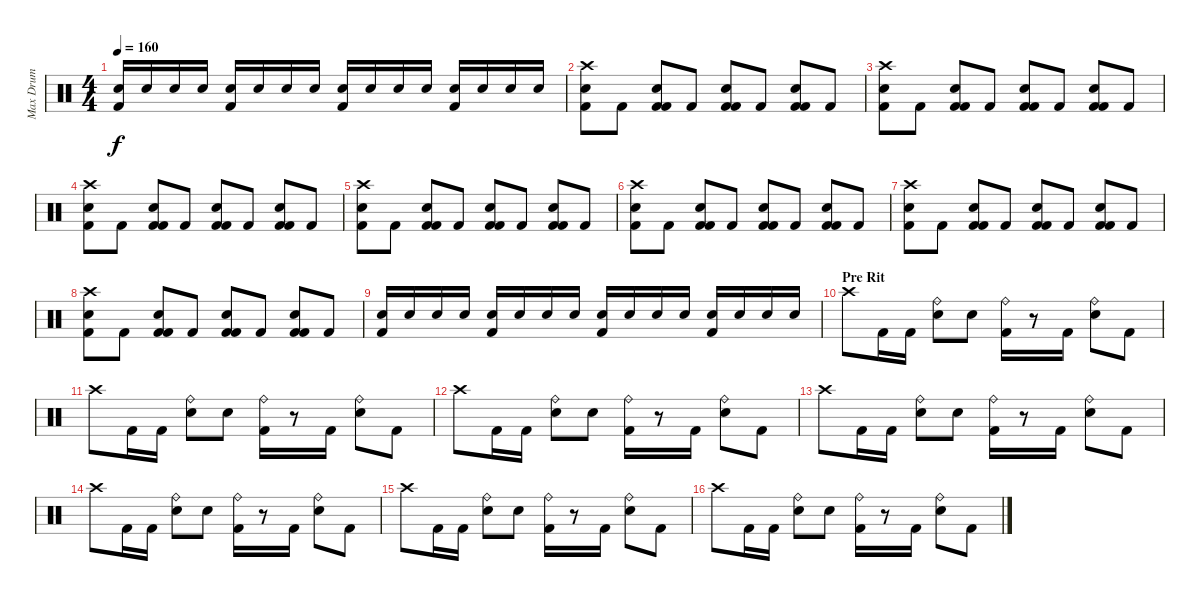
\track ("Max Drum" "Max Drum") {instrument percussion}
\staff {score}
\articulation defaults
\ts (4 4)
\tempo 160
\clef neutral
\ks c
("Snare (hit) 2" "Kick (hit) 2").16{dy f} "Snare (hit) 2".16 "Snare (hit) 2".16 "Snare (hit) 2".16 ("Snare (hit) 2" "Kick (hit) 2").16 "Snare (hit) 2".16 "Snare (hit) 2".16 "Snare (hit) 2".16 ("Snare (hit) 2" "Kick (hit) 2").16 "Snare (hit) 2".16 "Snare (hit) 2".16 "Snare (hit) 2".16 ("Snare (hit) 2" "Kick (hit) 2").16 "Snare (hit) 2".16 "Snare (hit) 2".16 "Snare (hit) 2".16 |
\section ("" "")
("Crash high (hit)" "Snare (hit) 2" "Kick (hit) 2").8 "Kick (hit) 2".8 ("Kick (hit) 2" "Snare (hit) 2" "Kick (hit) 2").8 "Kick (hit) 2".8 ("Kick (hit) 2" "Snare (hit) 2" "Kick (hit) 2").8 "Kick (hit) 2".8 ("Kick (hit) 2" "Snare (hit) 2" "Kick (hit) 2").8 "Kick (hit) 2".8 |
("Crash high (hit)" "Snare (hit) 2" "Kick (hit) 2").8 "Kick (hit) 2".8 ("Kick (hit) 2" "Snare (hit) 2" "Kick (hit) 2").8 "Kick (hit) 2".8 ("Kick (hit) 2" "Snare (hit) 2" "Kick (hit) 2").8 "Kick (hit) 2".8 ("Kick (hit) 2" "Snare (hit) 2" "Kick (hit) 2").8 "Kick (hit) 2".8 |
("Crash high (hit)" "Snare (hit) 2" "Kick (hit) 2").8 "Kick (hit) 2".8 ("Kick (hit) 2" "Snare (hit) 2" "Kick (hit) 2").8 "Kick (hit) 2".8 ("Kick (hit) 2" "Snare (hit) 2" "Kick (hit) 2").8 "Kick (hit) 2".8 ("Kick (hit) 2" "Snare (hit) 2" "Kick (hit) 2").8 "Kick (hit) 2".8 |
("Crash high (hit)" "Snare (hit) 2" "Kick (hit) 2").8 "Kick (hit) 2".8 ("Kick (hit) 2" "Snare (hit) 2" "Kick (hit) 2").8 "Kick (hit) 2".8 ("Kick (hit) 2" "Snare (hit) 2" "Kick (hit) 2").8 "Kick (hit) 2".8 ("Kick (hit) 2" "Snare (hit) 2" "Kick (hit) 2").8 "Kick (hit) 2".8 |
("Crash high (hit)" "Snare (hit) 2" "Kick (hit) 2").8 "Kick (hit) 2".8 ("Kick (hit) 2" "Snare (hit) 2" "Kick (hit) 2").8 "Kick (hit) 2".8 ("Kick (hit) 2" "Snare (hit) 2" "Kick (hit) 2").8 "Kick (hit) 2".8 ("Kick (hit) 2" "Snare (hit) 2" "Kick (hit) 2").8 "Kick (hit) 2".8 |
("Crash high (hit)" "Snare (hit) 2" "Kick (hit) 2").8 "Kick (hit) 2".8 ("Kick (hit) 2" "Snare (hit) 2" "Kick (hit) 2").8 "Kick (hit) 2".8 ("Kick (hit) 2" "Snare (hit) 2" "Kick (hit) 2").8 "Kick (hit) 2".8 ("Kick (hit) 2" "Snare (hit) 2" "Kick (hit) 2").8 "Kick (hit) 2".8 |
("Crash high (hit)" "Snare (hit) 2" "Kick (hit) 2").8 "Kick (hit) 2".8 ("Kick (hit) 2" "Snare (hit) 2" "Kick (hit) 2").8 "Kick (hit) 2".8 ("Kick (hit) 2" "Snare (hit) 2" "Kick (hit) 2").8 "Kick (hit) 2".8 ("Kick (hit) 2" "Snare (hit) 2" "Kick (hit) 2").8 "Kick (hit) 2".8 |
("Snare (hit) 2" "Kick (hit) 2").16 "Snare (hit) 2".16 "Snare (hit) 2".16 "Snare (hit) 2".16 ("Snare (hit) 2" "Kick (hit) 2").16 "Snare (hit) 2".16 "Snare (hit) 2".16 "Snare (hit) 2".16 ("Snare (hit) 2" "Kick (hit) 2").16 "Snare (hit) 2".16 "Snare (hit) 2".16 "Snare (hit) 2".16 ("Snare (hit) 2" "Kick (hit) 2").16 "Snare (hit) 2".16 "Snare (hit) 2".16 "Snare (hit) 2".16 |
\section ("" "Pre Rit")
"Crash high (hit)".8 "Kick (hit) 2".16 "Kick (hit) 2".16 ("Ride (bell)" "Snare (hit) 2").8 "Snare (hit) 2".8 ("Ride (bell)" "Kick (hit) 2").16 r.8 "Kick (hit) 2".16 ("Ride (bell)" "Snare (hit) 2").8 "Kick (hit) 2".8 |
"Crash high (hit)".8 "Kick (hit) 2".16 "Kick (hit) 2".16 ("Ride (bell)" "Snare (hit) 2").8 "Snare (hit) 2".8 ("Ride (bell)" "Kick (hit) 2").16 r.8 "Kick (hit) 2".16 ("Ride (bell)" "Snare (hit) 2").8 "Kick (hit) 2".8 |
"Crash high (hit)".8 "Kick (hit) 2".16 "Kick (hit) 2".16 ("Ride (bell)" "Snare (hit) 2").8 "Snare (hit) 2".8 ("Ride (bell)" "Kick (hit) 2").16 r.8 "Kick (hit) 2".16 ("Ride (bell)" "Snare (hit) 2").8 "Kick (hit) 2".8 |
"Crash high (hit)".8 "Kick (hit) 2".16 "Kick (hit) 2".16 ("Ride (bell)" "Snare (hit) 2").8 "Snare (hit) 2".8 ("Ride (bell)" "Kick (hit) 2").16 r.8 "Kick (hit) 2".16 ("Ride (bell)" "Snare (hit) 2").8 "Kick (hit) 2".8 |
"Crash high (hit)".8 "Kick (hit) 2".16 "Kick (hit) 2".16 ("Ride (bell)" "Snare (hit) 2").8 "Snare (hit) 2".8 ("Ride (bell)" "Kick (hit) 2").16 r.8 "Kick (hit) 2".16 ("Ride (bell)" "Snare (hit) 2").8 "Kick (hit) 2".8 |
"Crash high (hit)".8 "Kick (hit) 2".16 "Kick (hit) 2".16 ("Ride (bell)" "Snare (hit) 2").8 "Snare (hit) 2".8 ("Ride (bell)" "Kick (hit) 2").16 r.8 "Kick (hit) 2".16 ("Ride (bell)" "Snare (hit) 2").8 "Kick (hit) 2".8 |
"Crash high (hit)".8 "Kick (hit) 2".16 "Kick (hit) 2".16 ("Ride (bell)" "Snare (hit) 2").8 "Snare (hit) 2".8 ("Ride (bell)" "Kick (hit) 2").16 r.8 "Kick (hit) 2".16 ("Ride (bell)" "Snare (hit) 2").8 "Kick (hit) 2".8
